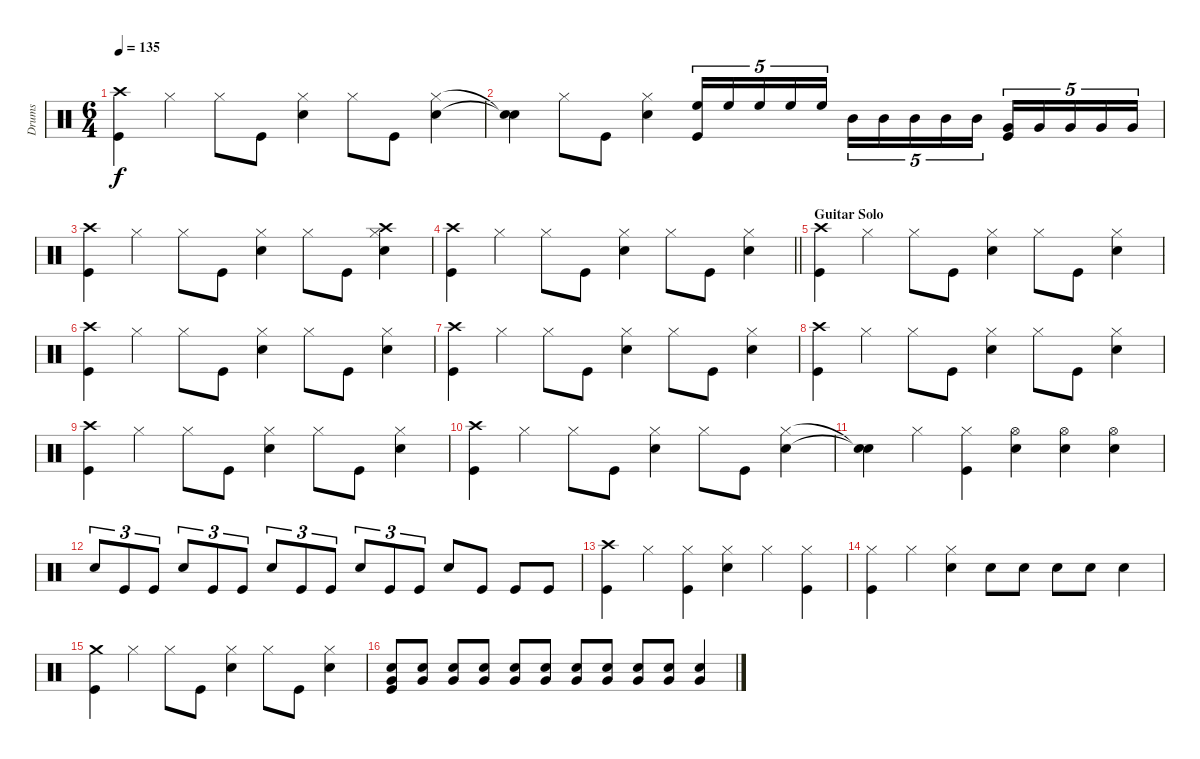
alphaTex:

\track ("Drums" "Drums") {instrument percussion}
\staff {score}
\articulation defaults
\ts (6 4)
\tempo 135
\clef neutral
\ks c
("Crash high (hit)" "Kick (hit)").4{dy f} "Hi-Hat (closed)".4 "Hi-Hat (closed)".8 "Kick (hit)".8 ("Hi-Hat (closed)" "Electric Snare (hit)").4 "Hi-Hat (closed)".8 "Kick (hit)".8 ("Hi-Hat (closed)" "Electric Snare (hit)").4 |
("Snare (hit)"{t} "Snare (hit)"{t}).4 "Hi-Hat (closed)".8 "Kick (hit)".8 ("Hi-Hat (closed)" "Electric Snare (hit)").4 ("Kick (hit)" "High Floor Tom (hit)").16{tu (5 4)} "High Floor Tom (hit)".16{tu (5 4)} "High Floor Tom (hit)".16{tu (5 4)} "High Floor Tom (hit)".16{tu (5 4)} "High Floor Tom (hit)".16{tu (5 4) beam splitsecondary} "Mid Tom (hit)".16{tu (5 4)} "Mid Tom (hit)".16{tu (5 4)} "Mid Tom (hit)".16{tu (5 4)} "Mid Tom (hit)".16{tu (5 4)} "Mid Tom (hit)".16{tu (5 4) beam splitsecondary} ("Kick (hit)" "Very Low Tom (hit)").16{tu (5 4)} "Very Low Tom (hit)".16{tu (5 4)} "Very Low Tom (hit)".16{tu (5 4)} "Very Low Tom (hit)".16{tu (5 4)} "Very Low Tom (hit)".16{tu (5 4)} |
("Kick (hit)" "Crash high (hit)").4 "Hi-Hat (closed)".4 "Hi-Hat (closed)".8 "Kick (hit)".8 ("Hi-Hat (closed)" "Electric Snare (hit)").4 "Hi-Hat (closed)".8 "Kick (hit)".8 ("Hi-Hat (closed)" "Electric Snare (hit)" "Crash high (hit)").4 |
\barLineRight lightlight
("Crash high (hit)" "Kick (hit)").4 "Hi-Hat (closed)".4 "Hi-Hat (closed)".8 "Kick (hit)".8 ("Hi-Hat (closed)" "Electric Snare (hit)").4 "Hi-Hat (closed)".8 "Kick (hit)".8 ("Hi-Hat (closed)" "Electric Snare (hit)").4 |
\section ("" "Guitar Solo")
("Crash high (hit)" "Kick (hit)").4 "Hi-Hat (closed)".4 "Hi-Hat (closed)".8 "Kick (hit)".8 ("Hi-Hat (closed)" "Electric Snare (hit)").4 "Hi-Hat (closed)".8 "Kick (hit)".8 ("Hi-Hat (closed)" "Electric Snare (hit)").4 |
("Crash high (hit)" "Kick (hit)").4 "Hi-Hat (closed)".4 "Hi-Hat (closed)".8 "Kick (hit)".8 ("Hi-Hat (closed)" "Electric Snare (hit)").4 "Hi-Hat (closed)".8 "Kick (hit)".8 ("Hi-Hat (closed)" "Electric Snare (hit)").4 |
("Crash high (hit)" "Kick (hit)").4 "Hi-Hat (closed)".4 "Hi-Hat (closed)".8 "Kick (hit)".8 ("Hi-Hat (closed)" "Electric Snare (hit)").4 "Hi-Hat (closed)".8 "Kick (hit)".8 ("Hi-Hat (closed)" "Electric Snare (hit)").4 |
("Crash high (hit)" "Kick (hit)").4 "Hi-Hat (closed)".4 "Hi-Hat (closed)".8 "Kick (hit)".8 ("Hi-Hat (closed)" "Electric Snare (hit)").4 "Hi-Hat (closed)".8 "Kick (hit)".8 ("Hi-Hat (closed)" "Electric Snare (hit)").4 |
("Crash high (hit)" "Kick (hit)").4 "Hi-Hat (closed)".4 "Hi-Hat (closed)".8 "Kick (hit)".8 ("Hi-Hat (closed)" "Electric Snare (hit)").4 "Hi-Hat (closed)".8 "Kick (hit)".8 ("Hi-Hat (closed)" "Electric Snare (hit)").4 |
("Crash high (hit)" "Kick (hit)").4 "Hi-Hat (closed)".4 "Hi-Hat (closed)".8 "Kick (hit)".8 ("Hi-Hat (closed)" "Electric Snare (hit)").4 "Hi-Hat (closed)".8 "Kick (hit)".8 ("Hi-Hat (closed)" "Electric Snare (hit)").4 |
("Snare (hit)"{t} "Snare (hit)"{t}).4 "Hi-Hat (closed)".4 ("Hi-Hat (closed)" "Kick (hit)").4 ("Electric Snare (hit)" "Hi-Hat (open)").4 ("Hi-Hat (open)" "Electric Snare (hit)").4 ("Hi-Hat (open)" "Electric Snare (hit)").4 |
"Electric Snare (hit)".8{tu (3 2)} "Kick (hit)".8{tu (3 2)} "Kick (hit)".8{tu (3 2)} "Electric Snare (hit)".8{tu (3 2)} "Kick (hit)".8{tu (3 2)} "Kick (hit)".8{tu (3 2)} "Electric Snare (hit)".8{tu (3 2)} "Kick (hit)".8{tu (3 2)} "Kick (hit)".8{tu (3 2)} "Electric Snare (hit)".8{tu (3 2)} "Kick (hit)".8{tu (3 2)} "Kick (hit)".8{tu (3 2)} "Electric Snare (hit)".8 "Kick (hit)".8 "Kick (hit)".8 "Kick (hit)".8 |
("Crash high (hit)" "Kick (hit)").4 "Hi-Hat (closed)".4 ("Hi-Hat (closed)" "Kick (hit)").4 ("Hi-Hat (closed)" "Electric Snare (hit)").4 "Hi-Hat (closed)".4 ("Hi-Hat (closed)" "Kick (hit)").4 |
("Hi-Hat (closed)" "Kick (hit)").4 "Hi-Hat (closed)".4 ("Hi-Hat (closed)" "Electric Snare (hit)").4 "Electric Snare (hit)".8 "Electric Snare (hit)".8 "Electric Snare (hit)".8 "Electric Snare (hit)".8 "Electric Snare (hit)".4 |
("Crash medium (hit)" "Kick (hit)").4 "Hi-Hat (closed)".4 "Hi-Hat (closed)".8 "Kick (hit)".8 ("Hi-Hat (closed)" "Electric Snare (hit)").4 "Hi-Hat (closed)".8 "Kick (hit)".8 ("Hi-Hat (closed)" "Electric Snare (hit)").4 |
("Kick (hit)" "Very Low Tom (hit)" "Electric Snare (hit)").8 ("Very Low Tom (hit)" "Electric Snare (hit)").8 ("Very Low Tom (hit)" "Electric Snare (hit)").8 ("Very Low Tom (hit)" "Electric Snare (hit)").8 ("Very Low Tom (hit)" "Electric Snare (hit)").8 ("Very Low Tom (hit)" "Electric Snare (hit)").8 ("Electric Snare (hit)" "Very Low Tom (hit)").8 ("Very Low Tom (hit)" "Electric Snare (hit)").8 ("Electric Snare (hit)" "Very Low Tom (hit)").8 ("Electric Snare (hit)" "Very Low Tom (hit)").8 ("Electric Snare (hit)" "Very Low Tom (hit)").4
